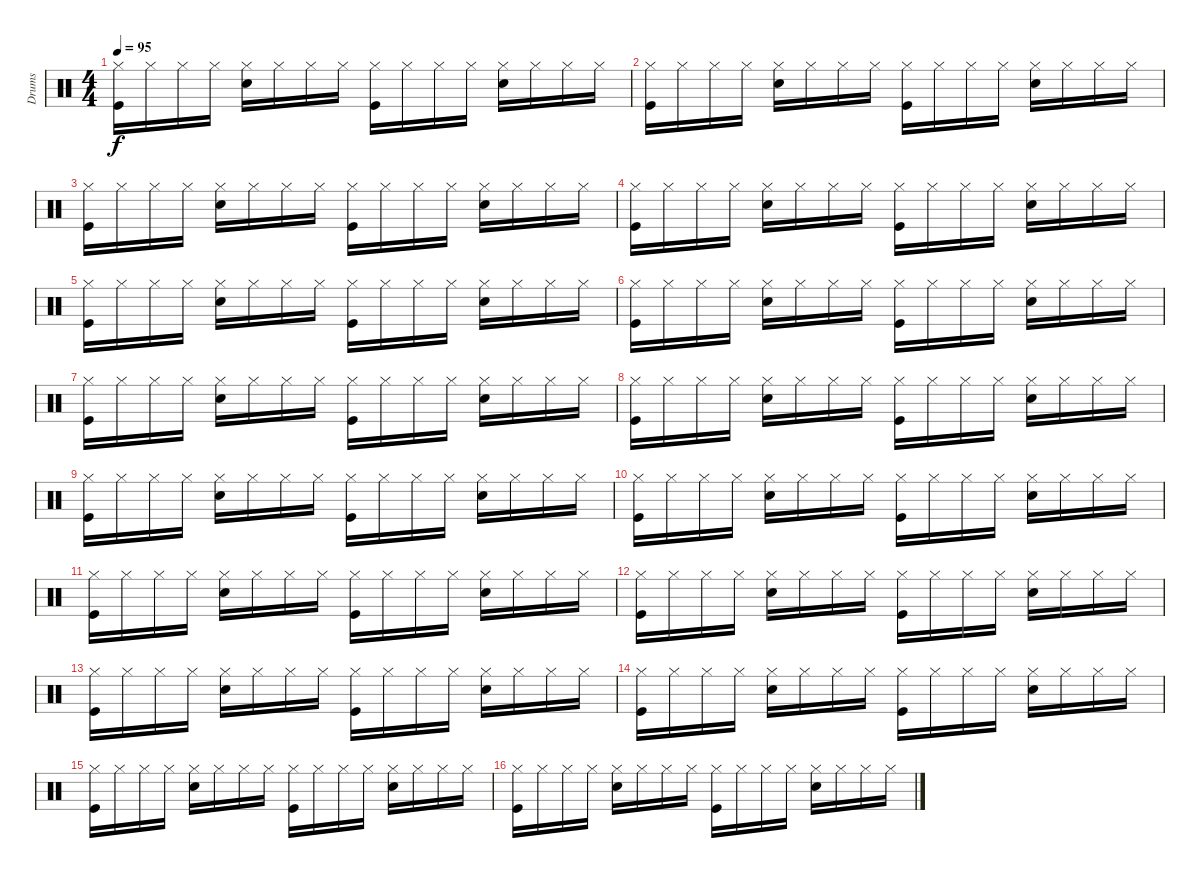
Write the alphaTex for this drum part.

\track ("Drums" "Drums") {instrument percussion}
\staff {score}
\articulation defaults
\ts (4 4)
\tempo 95
\clef neutral
\ks c
("Hi-Hat (closed)" "Kick (hit)").16{dy f} "Hi-Hat (closed)".16 "Hi-Hat (closed)".16 "Hi-Hat (closed)".16 ("Hi-Hat (closed)" "Snare (hit) 2").16 "Hi-Hat (closed)".16 "Hi-Hat (closed)".16 "Hi-Hat (closed)".16 ("Hi-Hat (closed)" "Kick (hit)").16 "Hi-Hat (closed)".16 "Hi-Hat (closed)".16 "Hi-Hat (closed)".16 ("Hi-Hat (closed)" "Snare (hit) 2").16 "Hi-Hat (closed)".16 "Hi-Hat (closed)".16 "Hi-Hat (closed)".16 |
("Hi-Hat (closed)" "Kick (hit)").16 "Hi-Hat (closed)".16 "Hi-Hat (closed)".16 "Hi-Hat (closed)".16 ("Hi-Hat (closed)" "Snare (hit) 2").16 "Hi-Hat (closed)".16 "Hi-Hat (closed)".16 "Hi-Hat (closed)".16 ("Hi-Hat (closed)" "Kick (hit)").16 "Hi-Hat (closed)".16 "Hi-Hat (closed)".16 "Hi-Hat (closed)".16 ("Hi-Hat (closed)" "Snare (hit) 2").16 "Hi-Hat (closed)".16 "Hi-Hat (closed)".16 "Hi-Hat (closed)".16 |
("Hi-Hat (closed)" "Kick (hit)").16 "Hi-Hat (closed)".16 "Hi-Hat (closed)".16 "Hi-Hat (closed)".16 ("Hi-Hat (closed)" "Snare (hit) 2").16 "Hi-Hat (closed)".16 "Hi-Hat (closed)".16 "Hi-Hat (closed)".16 ("Hi-Hat (closed)" "Kick (hit)").16 "Hi-Hat (closed)".16 "Hi-Hat (closed)".16 "Hi-Hat (closed)".16 ("Hi-Hat (closed)" "Snare (hit) 2").16 "Hi-Hat (closed)".16 "Hi-Hat (closed)".16 "Hi-Hat (closed)".16 |
("Hi-Hat (closed)" "Kick (hit)").16 "Hi-Hat (closed)".16 "Hi-Hat (closed)".16 "Hi-Hat (closed)".16 ("Hi-Hat (closed)" "Snare (hit) 2").16 "Hi-Hat (closed)".16 "Hi-Hat (closed)".16 "Hi-Hat (closed)".16 ("Hi-Hat (closed)" "Kick (hit)").16 "Hi-Hat (closed)".16 "Hi-Hat (closed)".16 "Hi-Hat (closed)".16 ("Hi-Hat (closed)" "Snare (hit) 2").16 "Hi-Hat (closed)".16 "Hi-Hat (closed)".16 "Hi-Hat (closed)".16 |
("Hi-Hat (closed)" "Kick (hit)").16 "Hi-Hat (closed)".16 "Hi-Hat (closed)".16 "Hi-Hat (closed)".16 ("Hi-Hat (closed)" "Snare (hit) 2").16 "Hi-Hat (closed)".16 "Hi-Hat (closed)".16 "Hi-Hat (closed)".16 ("Hi-Hat (closed)" "Kick (hit)").16 "Hi-Hat (closed)".16 "Hi-Hat (closed)".16 "Hi-Hat (closed)".16 ("Hi-Hat (closed)" "Snare (hit) 2").16 "Hi-Hat (closed)".16 "Hi-Hat (closed)".16 "Hi-Hat (closed)".16 |
("Hi-Hat (closed)" "Kick (hit)").16 "Hi-Hat (closed)".16 "Hi-Hat (closed)".16 "Hi-Hat (closed)".16 ("Hi-Hat (closed)" "Snare (hit) 2").16 "Hi-Hat (closed)".16 "Hi-Hat (closed)".16 "Hi-Hat (closed)".16 ("Hi-Hat (closed)" "Kick (hit)").16 "Hi-Hat (closed)".16 "Hi-Hat (closed)".16 "Hi-Hat (closed)".16 ("Hi-Hat (closed)" "Snare (hit) 2").16 "Hi-Hat (closed)".16 "Hi-Hat (closed)".16 "Hi-Hat (closed)".16 |
("Hi-Hat (closed)" "Kick (hit)").16 "Hi-Hat (closed)".16 "Hi-Hat (closed)".16 "Hi-Hat (closed)".16 ("Hi-Hat (closed)" "Snare (hit) 2").16 "Hi-Hat (closed)".16 "Hi-Hat (closed)".16 "Hi-Hat (closed)".16 ("Hi-Hat (closed)" "Kick (hit)").16 "Hi-Hat (closed)".16 "Hi-Hat (closed)".16 "Hi-Hat (closed)".16 ("Hi-Hat (closed)" "Snare (hit) 2").16 "Hi-Hat (closed)".16 "Hi-Hat (closed)".16 "Hi-Hat (closed)".16 |
("Hi-Hat (closed)" "Kick (hit)").16 "Hi-Hat (closed)".16 "Hi-Hat (closed)".16 "Hi-Hat (closed)".16 ("Hi-Hat (closed)" "Snare (hit) 2").16 "Hi-Hat (closed)".16 "Hi-Hat (closed)".16 "Hi-Hat (closed)".16 ("Hi-Hat (closed)" "Kick (hit)").16 "Hi-Hat (closed)".16 "Hi-Hat (closed)".16 "Hi-Hat (closed)".16 ("Hi-Hat (closed)" "Snare (hit) 2").16 "Hi-Hat (closed)".16 "Hi-Hat (closed)".16 "Hi-Hat (closed)".16 |
("Hi-Hat (closed)" "Kick (hit)").16 "Hi-Hat (closed)".16 "Hi-Hat (closed)".16 "Hi-Hat (closed)".16 ("Hi-Hat (closed)" "Snare (hit) 2").16 "Hi-Hat (closed)".16 "Hi-Hat (closed)".16 "Hi-Hat (closed)".16 ("Hi-Hat (closed)" "Kick (hit)").16 "Hi-Hat (closed)".16 "Hi-Hat (closed)".16 "Hi-Hat (closed)".16 ("Hi-Hat (closed)" "Snare (hit) 2").16 "Hi-Hat (closed)".16 "Hi-Hat (closed)".16 "Hi-Hat (closed)".16 |
("Hi-Hat (closed)" "Kick (hit)").16 "Hi-Hat (closed)".16 "Hi-Hat (closed)".16 "Hi-Hat (closed)".16 ("Hi-Hat (closed)" "Snare (hit) 2").16 "Hi-Hat (closed)".16 "Hi-Hat (closed)".16 "Hi-Hat (closed)".16 ("Hi-Hat (closed)" "Kick (hit)").16 "Hi-Hat (closed)".16 "Hi-Hat (closed)".16 "Hi-Hat (closed)".16 ("Hi-Hat (closed)" "Snare (hit) 2").16 "Hi-Hat (closed)".16 "Hi-Hat (closed)".16 "Hi-Hat (closed)".16 |
("Hi-Hat (closed)" "Kick (hit)").16 "Hi-Hat (closed)".16 "Hi-Hat (closed)".16 "Hi-Hat (closed)".16 ("Hi-Hat (closed)" "Snare (hit) 2").16 "Hi-Hat (closed)".16 "Hi-Hat (closed)".16 "Hi-Hat (closed)".16 ("Hi-Hat (closed)" "Kick (hit)").16 "Hi-Hat (closed)".16 "Hi-Hat (closed)".16 "Hi-Hat (closed)".16 ("Hi-Hat (closed)" "Snare (hit) 2").16 "Hi-Hat (closed)".16 "Hi-Hat (closed)".16 "Hi-Hat (closed)".16 |
("Hi-Hat (closed)" "Kick (hit)").16 "Hi-Hat (closed)".16 "Hi-Hat (closed)".16 "Hi-Hat (closed)".16 ("Hi-Hat (closed)" "Snare (hit) 2").16 "Hi-Hat (closed)".16 "Hi-Hat (closed)".16 "Hi-Hat (closed)".16 ("Hi-Hat (closed)" "Kick (hit)").16 "Hi-Hat (closed)".16 "Hi-Hat (closed)".16 "Hi-Hat (closed)".16 ("Hi-Hat (closed)" "Snare (hit) 2").16 "Hi-Hat (closed)".16 "Hi-Hat (closed)".16 "Hi-Hat (closed)".16 |
("Hi-Hat (closed)" "Kick (hit)").16 "Hi-Hat (closed)".16 "Hi-Hat (closed)".16 "Hi-Hat (closed)".16 ("Hi-Hat (closed)" "Snare (hit) 2").16 "Hi-Hat (closed)".16 "Hi-Hat (closed)".16 "Hi-Hat (closed)".16 ("Hi-Hat (closed)" "Kick (hit)").16 "Hi-Hat (closed)".16 "Hi-Hat (closed)".16 "Hi-Hat (closed)".16 ("Hi-Hat (closed)" "Snare (hit) 2").16 "Hi-Hat (closed)".16 "Hi-Hat (closed)".16 "Hi-Hat (closed)".16 |
("Hi-Hat (closed)" "Kick (hit)").16 "Hi-Hat (closed)".16 "Hi-Hat (closed)".16 "Hi-Hat (closed)".16 ("Hi-Hat (closed)" "Snare (hit) 2").16 "Hi-Hat (closed)".16 "Hi-Hat (closed)".16 "Hi-Hat (closed)".16 ("Hi-Hat (closed)" "Kick (hit)").16 "Hi-Hat (closed)".16 "Hi-Hat (closed)".16 "Hi-Hat (closed)".16 ("Hi-Hat (closed)" "Snare (hit) 2").16 "Hi-Hat (closed)".16 "Hi-Hat (closed)".16 "Hi-Hat (closed)".16 |
("Hi-Hat (closed)" "Kick (hit)").16 "Hi-Hat (closed)".16 "Hi-Hat (closed)".16 "Hi-Hat (closed)".16 ("Hi-Hat (closed)" "Snare (hit) 2").16 "Hi-Hat (closed)".16 "Hi-Hat (closed)".16 "Hi-Hat (closed)".16 ("Hi-Hat (closed)" "Kick (hit)").16 "Hi-Hat (closed)".16 "Hi-Hat (closed)".16 "Hi-Hat (closed)".16 ("Hi-Hat (closed)" "Snare (hit) 2").16 "Hi-Hat (closed)".16 "Hi-Hat (closed)".16 "Hi-Hat (closed)".16 |
("Hi-Hat (closed)" "Kick (hit)").16 "Hi-Hat (closed)".16 "Hi-Hat (closed)".16 "Hi-Hat (closed)".16 ("Hi-Hat (closed)" "Snare (hit) 2").16 "Hi-Hat (closed)".16 "Hi-Hat (closed)".16 "Hi-Hat (closed)".16 ("Hi-Hat (closed)" "Kick (hit)").16 "Hi-Hat (closed)".16 "Hi-Hat (closed)".16 "Hi-Hat (closed)".16 ("Hi-Hat (closed)" "Snare (hit) 2").16 "Hi-Hat (closed)".16 "Hi-Hat (closed)".16 "Hi-Hat (closed)".16
